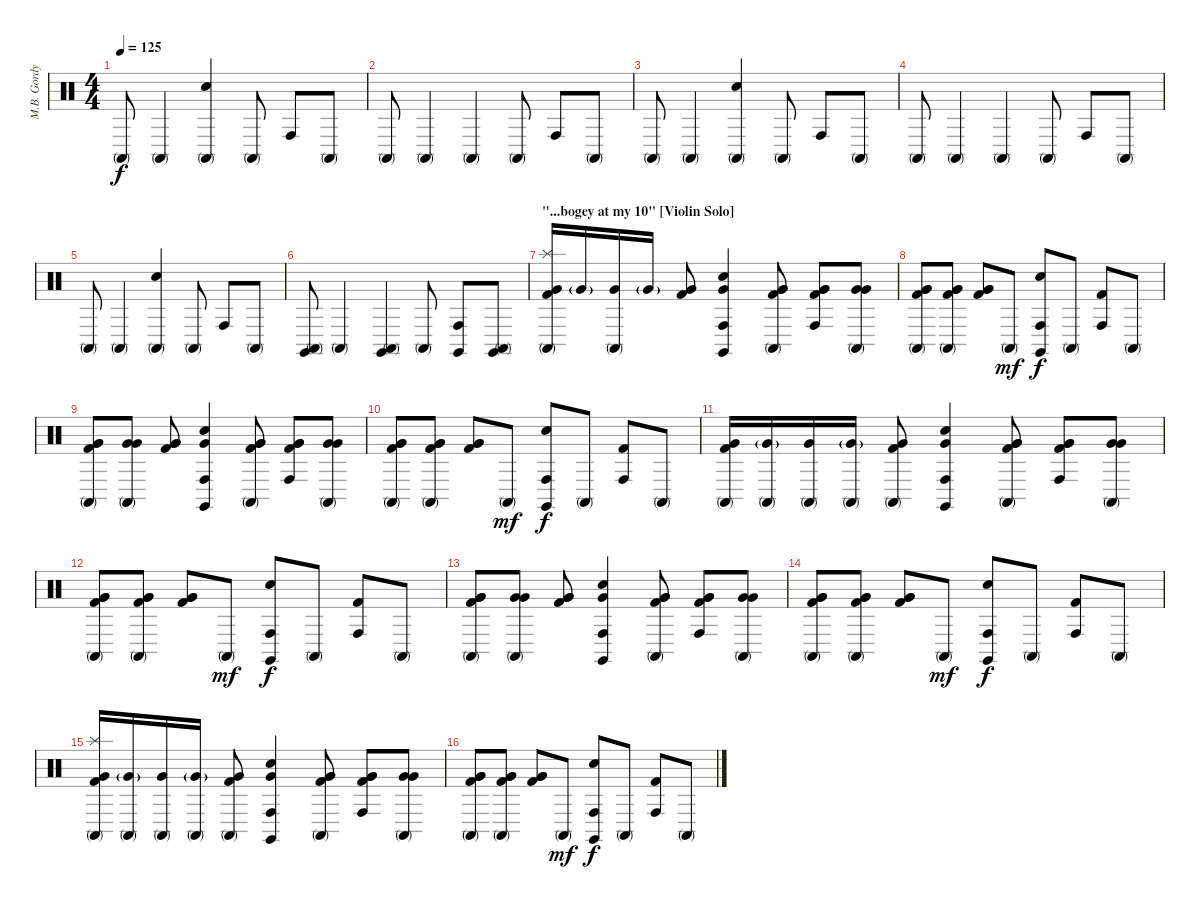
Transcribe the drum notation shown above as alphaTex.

\track ("M.B. Gordy [Percüsion]" "M.B. Gordy") {instrument percussion}
\staff {score}
\articulation defaults
\ts (4 4)
\tempo 125
\clef neutral
\ks c "Conga high (mute)".8{dy f} "Conga high (mute)".4
("Hand Clap (hit)" "Conga high (mute)").4 "Conga high (mute)".8 "Conga high (hit)".8 "Conga high (mute)".8 |
"Conga high (mute)".8 "Conga high (mute)".4 "Conga high (mute)".4 "Conga high (mute)".8 "Conga high (hit)".8 "Conga high (mute)".8 |
"Conga high (mute)".8 "Conga high (mute)".4 ("Hand Clap (hit)" "Conga high (mute)").4 "Conga high (mute)".8 "Conga high (hit)".8 "Conga high (mute)".8 |
"Conga high (mute)".8 "Conga high (mute)".4 "Conga high (mute)".4 "Conga high (mute)".8 "Conga high (hit)".8 "Conga high (mute)".8 |
"Conga high (mute)".8 "Conga high (mute)".4 ("Hand Clap (hit)" "Conga high (mute)").4 "Conga high (mute)".8 "Conga high (hit)".8 "Conga high (mute)".8 |
("Claves (hit)" "Conga high (mute)").8 "Conga high (mute)".4 ("Claves (hit)" "Conga high (mute)").4 "Conga high (mute)".8 ("Claves (hit)" "Conga high (hit)").8 ("Claves (hit)" "Conga high (mute)").8 |
\section ("" "\"...bogey at my 10\" [Violin Solo]")
("Splash (hit)" "Conga high (mute)" "Very Low Tom (hit)" "Kick (hit) 2").16 "Very Low Tom (hit)"{g}.16 ("Conga high (mute)" "Very Low Tom (hit)").16 "Very Low Tom (hit)"{g}.16 ("Very Low Tom (hit)" "Kick (hit) 2").8 ("Claves (hit)" "Conga high (hit)" "Hand Clap (hit)" "Very Low Tom (hit)").4 ("Conga high (mute)" "Very Low Tom (hit)" "Very Low Tom (hit)" "Kick (hit) 2").8 ("Conga high (hit)" "Very Low Tom (hit)" "Very Low Tom (hit)" "Kick (hit) 2").8 ("Conga high (mute)" "Very Low Tom (hit)" "Very Low Tom (hit)").8 |
("Conga high (mute)" "Very Low Tom (hit)" "Very Low Tom (hit)" "Kick (hit) 2").8 ("Conga high (mute)" "Very Low Tom (hit)" "Very Low Tom (hit)" "Kick (hit) 2").8 ("Very Low Tom (hit)" "Very Low Tom (hit)" "Kick (hit) 2").8 "Conga high (mute)".8{dy mf} ("Claves (hit)" "Conga high (hit)" "Hand Clap (hit)").8{dy f} "Conga high (mute)".8 ("Conga high (hit)" "Kick (hit) 2").8 "Conga high (mute)".8 |
("Conga high (mute)" "Very Low Tom (hit)" "Very Low Tom (hit)" "Kick (hit) 2").8 ("Conga high (mute)" "Very Low Tom (hit)" "Very Low Tom (hit)").8 ("Very Low Tom (hit)" "Very Low Tom (hit)" "Kick (hit) 2").8 ("Claves (hit)" "Conga high (hit)" "Hand Clap (hit)" "Very Low Tom (hit)").4 ("Conga high (mute)" "Very Low Tom (hit)" "Very Low Tom (hit)" "Kick (hit) 2").8 ("Conga high (hit)" "Very Low Tom (hit)" "Very Low Tom (hit)" "Kick (hit) 2").8 ("Conga high (mute)" "Very Low Tom (hit)" "Very Low Tom (hit)").8 |
("Conga high (mute)" "Very Low Tom (hit)" "Very Low Tom (hit)" "Kick (hit) 2").8 ("Conga high (mute)" "Very Low Tom (hit)" "Very Low Tom (hit)" "Kick (hit) 2").8 ("Very Low Tom (hit)" "Very Low Tom (hit)" "Kick (hit) 2").8 "Conga high (mute)".8{dy mf} ("Claves (hit)" "Conga high (hit)" "Hand Clap (hit)").8{dy f} "Conga high (mute)".8 ("Conga high (hit)" "Kick (hit) 2").8 "Conga high (mute)".8 |
("Conga high (mute)" "Very Low Tom (hit)" "Kick (hit) 2").16 ("Conga high (mute)" "Very Low Tom (hit)"{g}).16 ("Conga high (mute)" "Very Low Tom (hit)").16 ("Conga high (mute)" "Very Low Tom (hit)"{g}).16 ("Conga high (mute)" "Very Low Tom (hit)" "Kick (hit) 2").8 ("Claves (hit)" "Conga high (hit)" "Hand Clap (hit)" "Very Low Tom (hit)").4 ("Conga high (mute)" "Very Low Tom (hit)" "Very Low Tom (hit)" "Kick (hit) 2").8 ("Conga high (hit)" "Very Low Tom (hit)" "Very Low Tom (hit)" "Kick (hit) 2").8 ("Conga high (mute)" "Very Low Tom (hit)" "Very Low Tom (hit)").8 |
("Conga high (mute)" "Very Low Tom (hit)" "Very Low Tom (hit)" "Kick (hit) 2").8 ("Conga high (mute)" "Very Low Tom (hit)" "Very Low Tom (hit)" "Kick (hit) 2").8 ("Very Low Tom (hit)" "Very Low Tom (hit)" "Kick (hit) 2").8 "Conga high (mute)".8{dy mf} ("Claves (hit)" "Conga high (hit)" "Hand Clap (hit)").8{dy f} "Conga high (mute)".8 ("Conga high (hit)" "Kick (hit) 2").8 "Conga high (mute)".8 |
("Conga high (mute)" "Very Low Tom (hit)" "Very Low Tom (hit)" "Kick (hit) 2").8 ("Conga high (mute)" "Very Low Tom (hit)" "Very Low Tom (hit)").8 ("Very Low Tom (hit)" "Very Low Tom (hit)" "Kick (hit) 2").8 ("Claves (hit)" "Conga high (hit)" "Hand Clap (hit)" "Very Low Tom (hit)").4 ("Conga high (mute)" "Very Low Tom (hit)" "Very Low Tom (hit)" "Kick (hit) 2").8 ("Conga high (hit)" "Very Low Tom (hit)" "Very Low Tom (hit)" "Kick (hit) 2").8 ("Conga high (mute)" "Very Low Tom (hit)" "Very Low Tom (hit)").8 |
("Conga high (mute)" "Very Low Tom (hit)" "Very Low Tom (hit)" "Kick (hit) 2").8 ("Conga high (mute)" "Very Low Tom (hit)" "Very Low Tom (hit)" "Kick (hit) 2").8 ("Very Low Tom (hit)" "Very Low Tom (hit)" "Kick (hit) 2").8 "Conga high (mute)".8{dy mf} ("Claves (hit)" "Conga high (hit)" "Hand Clap (hit)").8{dy f} "Conga high (mute)".8 ("Conga high (hit)" "Kick (hit) 2").8 "Conga high (mute)".8 |
("Splash (hit)" "Conga high (mute)" "Very Low Tom (hit)" "Kick (hit) 2").16 ("Conga high (mute)" "Very Low Tom (hit)"{g}).16 ("Conga high (mute)" "Very Low Tom (hit)").16 ("Conga high (mute)" "Very Low Tom (hit)"{g}).16 ("Conga high (mute)" "Very Low Tom (hit)" "Kick (hit) 2").8 ("Claves (hit)" "Conga high (hit)" "Hand Clap (hit)" "Very Low Tom (hit)").4 ("Conga high (mute)" "Very Low Tom (hit)" "Very Low Tom (hit)" "Kick (hit) 2").8 ("Conga high (hit)" "Very Low Tom (hit)" "Very Low Tom (hit)" "Kick (hit) 2").8 ("Conga high (mute)" "Very Low Tom (hit)" "Very Low Tom (hit)").8 |
("Conga high (mute)" "Very Low Tom (hit)" "Very Low Tom (hit)" "Kick (hit) 2").8 ("Conga high (mute)" "Very Low Tom (hit)" "Very Low Tom (hit)" "Kick (hit) 2").8 ("Very Low Tom (hit)" "Very Low Tom (hit)" "Kick (hit) 2").8 "Conga high (mute)".8{dy mf} ("Claves (hit)" "Conga high (hit)" "Hand Clap (hit)").8{dy f} "Conga high (mute)".8 ("Conga high (hit)" "Kick (hit) 2").8 "Conga high (mute)".8
